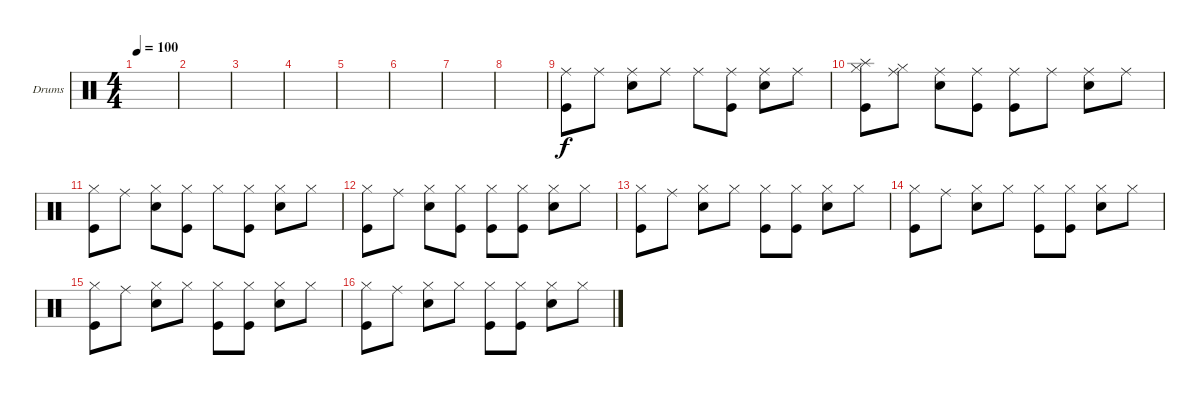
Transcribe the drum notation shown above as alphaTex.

\defaultSystemsLayout 4
\bracketExtendMode groupsimilarinstruments
\firstSystemTrackNameOrientation horizontal
\otherSystemsTrackNameOrientation horizontal
\track ("Drumkit" "Drums") {instrument percussion}
\staff {score}
\articulation defaults
\ts (4 4)
\tempo 100
\clef neutral
\ks c
|
|
|
|
|
|
|
|
("Ride (middle)" "Kick (hit)").8 "Ride (middle)".8 ("Ride (middle)" "Snare (hit) 2").8 "Ride (middle)".8 "Ride (middle)".8 ("Ride (middle)" "Kick (hit)").8 ("Ride (middle)" "Snare (hit) 2").8 "Ride (middle)".8 |
("Splash (hit)" "Hi-Hat (closed)" "Kick (hit)").8 ("Hi-Hat (closed)" "Ride (middle)").8 ("Ride (middle)" "Snare (hit) 2").8 ("Ride (middle)" "Kick (hit)").8 ("Ride (middle)" "Kick (hit)").8 "Ride (middle)".8 ("Ride (middle)" "Snare (hit) 2").8 "Ride (middle)".8 |
("Kick (hit)" "Hi-Hat (closed)").8 "Ride (middle)".8 ("Snare (hit) 2" "Hi-Hat (closed)").8 ("Kick (hit)" "Hi-Hat (closed)").8 "Hi-Hat (closed)".8 ("Kick (hit)" "Hi-Hat (closed)").8 ("Snare (hit) 2" "Hi-Hat (closed)").8 "Hi-Hat (closed)".8 |
("Kick (hit)" "Hi-Hat (closed)").8 "Ride (middle)".8 ("Snare (hit) 2" "Hi-Hat (closed)").8 ("Kick (hit)" "Hi-Hat (closed)").8 ("Kick (hit)" "Hi-Hat (closed)").8 ("Kick (hit)" "Hi-Hat (closed)").8 ("Snare (hit) 2" "Hi-Hat (closed)").8 "Hi-Hat (closed)".8 |
("Kick (hit)" "Hi-Hat (closed)").8 "Ride (middle)".8 ("Snare (hit) 2" "Hi-Hat (closed)").8 "Hi-Hat (closed)".8 ("Kick (hit)" "Hi-Hat (closed)").8 ("Kick (hit)" "Hi-Hat (closed)").8 ("Snare (hit) 2" "Hi-Hat (closed)").8 "Hi-Hat (closed)".8 |
("Kick (hit)" "Hi-Hat (closed)").8 "Ride (middle)".8 ("Snare (hit) 2" "Hi-Hat (closed)").8 "Hi-Hat (closed)".8 ("Kick (hit)" "Hi-Hat (closed)").8 ("Kick (hit)" "Hi-Hat (closed)").8 ("Snare (hit) 2" "Hi-Hat (closed)").8 "Hi-Hat (closed)".8 |
("Kick (hit)" "Hi-Hat (closed)").8 "Ride (middle)".8 ("Snare (hit) 2" "Hi-Hat (closed)").8 "Hi-Hat (closed)".8 ("Kick (hit)" "Hi-Hat (closed)").8 ("Kick (hit)" "Hi-Hat (closed)").8 ("Snare (hit) 2" "Hi-Hat (closed)").8 "Hi-Hat (closed)".8 |
("Kick (hit)" "Hi-Hat (closed)").8 "Ride (middle)".8 ("Snare (hit) 2" "Hi-Hat (closed)").8 "Hi-Hat (closed)".8 ("Kick (hit)" "Hi-Hat (closed)").8 ("Kick (hit)" "Hi-Hat (closed)").8 ("Snare (hit) 2" "Hi-Hat (closed)").8 "Hi-Hat (closed)".8
